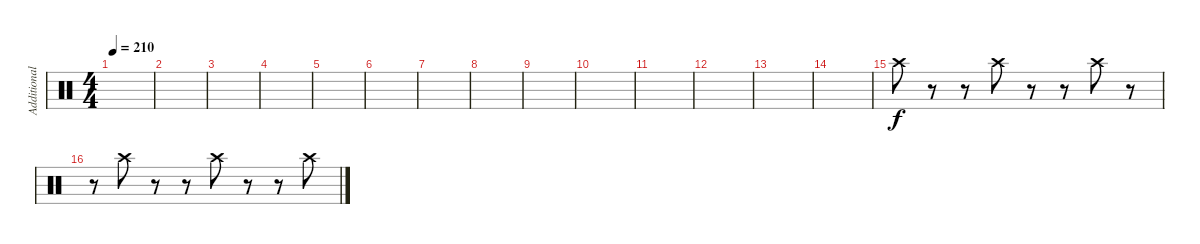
\track ("Additional drums" "Additional") {instrument percussion}
\staff {score}
\articulation defaults
\ts (4 4)
\tempo 210
\clef neutral
\ks c
|
|
|
|
|
|
|
|
|
|
|
|
|
|
"Crash high (hit)".8 r.8 r.8 "Crash high (hit)".8 r.8 r.8 "Crash high (hit)".8 r.8 |
r.8 "Crash high (hit)".8 r.8 r.8 "Crash high (hit)".8 r.8 r.8 "Crash high (hit)".8
